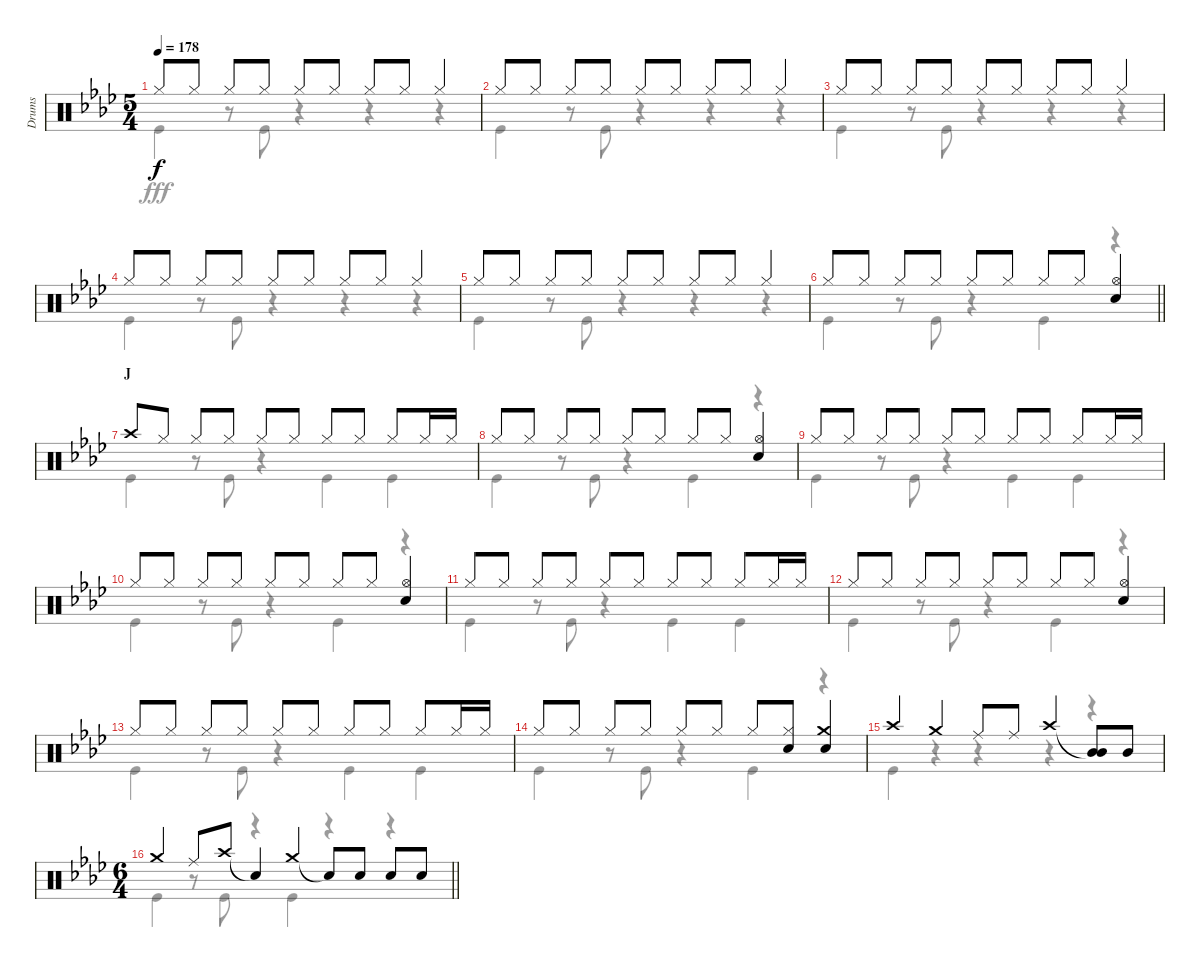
\track ("Drums" "Drums") {instrument percussion}
\staff {score}
\articulation defaults
\voice
\ts (5 4)
\tempo 178
\clef neutral
\ks ab "Hi-Hat (closed)".8{dy f} "Hi-Hat (closed)".8 "Hi-Hat (closed)".8 "Hi-Hat (closed)".8 "Hi-Hat (closed)".8 "Hi-Hat (closed)".8 "Hi-Hat (closed)".8 "Hi-Hat (closed)".8 "Hi-Hat (closed)".4
|
"Hi-Hat (closed)".8 "Hi-Hat (closed)".8 "Hi-Hat (closed)".8 "Hi-Hat (closed)".8 "Hi-Hat (closed)".8 "Hi-Hat (closed)".8 "Hi-Hat (closed)".8 "Hi-Hat (closed)".8 "Hi-Hat (closed)".4 |
"Hi-Hat (closed)".8 "Hi-Hat (closed)".8 "Hi-Hat (closed)".8 "Hi-Hat (closed)".8 "Hi-Hat (closed)".8 "Hi-Hat (closed)".8 "Hi-Hat (closed)".8 "Hi-Hat (closed)".8 "Hi-Hat (closed)".4 |
"Hi-Hat (closed)".8 "Hi-Hat (closed)".8 "Hi-Hat (closed)".8 "Hi-Hat (closed)".8 "Hi-Hat (closed)".8 "Hi-Hat (closed)".8 "Hi-Hat (closed)".8 "Hi-Hat (closed)".8 "Hi-Hat (closed)".4 |
"Hi-Hat (closed)".8 "Hi-Hat (closed)".8 "Hi-Hat (closed)".8 "Hi-Hat (closed)".8 "Hi-Hat (closed)".8 "Hi-Hat (closed)".8 "Hi-Hat (closed)".8 "Hi-Hat (closed)".8 "Hi-Hat (closed)".4 |
\barLineRight lightlight "Hi-Hat (closed)".8 "Hi-Hat (closed)".8 "Hi-Hat (closed)".8 "Hi-Hat (closed)".8 "Hi-Hat (closed)".8 "Hi-Hat (closed)".8 "Hi-Hat (closed)".8 "Hi-Hat (closed)".8
("Hi-Hat (open)" "Snare (hit) 2").4 |
\section ("" "J")
"Crash high (hit)".8 "Hi-Hat (closed)".8 "Hi-Hat (closed)".8 "Hi-Hat (closed)".8 "Hi-Hat (closed)".8 "Hi-Hat (closed)".8 "Hi-Hat (closed)".8 "Hi-Hat (closed)".8 "Hi-Hat (closed)".8 "Hi-Hat (closed)".16 "Hi-Hat (closed)".16 |
"Hi-Hat (closed)".8 "Hi-Hat (closed)".8 "Hi-Hat (closed)".8 "Hi-Hat (closed)".8 "Hi-Hat (closed)".8 "Hi-Hat (closed)".8 "Hi-Hat (closed)".8 "Hi-Hat (closed)".8 ("Hi-Hat (open)" "Snare (hit) 2").4 |
"Hi-Hat (closed)".8 "Hi-Hat (closed)".8 "Hi-Hat (closed)".8 "Hi-Hat (closed)".8 "Hi-Hat (closed)".8 "Hi-Hat (closed)".8 "Hi-Hat (closed)".8 "Hi-Hat (closed)".8 "Hi-Hat (closed)".8 "Hi-Hat (closed)".16 "Hi-Hat (closed)".16 |
"Hi-Hat (closed)".8 "Hi-Hat (closed)".8 "Hi-Hat (closed)".8 "Hi-Hat (closed)".8 "Hi-Hat (closed)".8 "Hi-Hat (closed)".8 "Hi-Hat (closed)".8 "Hi-Hat (closed)".8 ("Hi-Hat (open)" "Snare (hit) 2").4 |
"Hi-Hat (closed)".8 "Hi-Hat (closed)".8 "Hi-Hat (closed)".8 "Hi-Hat (closed)".8 "Hi-Hat (closed)".8 "Hi-Hat (closed)".8 "Hi-Hat (closed)".8 "Hi-Hat (closed)".8 "Hi-Hat (closed)".8 "Hi-Hat (closed)".16 "Hi-Hat (closed)".16 |
"Hi-Hat (closed)".8 "Hi-Hat (closed)".8 "Hi-Hat (closed)".8 "Hi-Hat (closed)".8 "Hi-Hat (closed)".8 "Hi-Hat (closed)".8 "Hi-Hat (closed)".8 "Hi-Hat (closed)".8 ("Hi-Hat (open)" "Snare (hit) 2").4 |
"Hi-Hat (closed)".8 "Hi-Hat (closed)".8 "Hi-Hat (closed)".8 "Hi-Hat (closed)".8 "Hi-Hat (closed)".8 "Hi-Hat (closed)".8 "Hi-Hat (closed)".8 "Hi-Hat (closed)".8 "Hi-Hat (closed)".8 "Hi-Hat (closed)".16 "Hi-Hat (closed)".16 |
"Hi-Hat (closed)".8 "Hi-Hat (closed)".8 "Hi-Hat (closed)".8 "Hi-Hat (closed)".8 "Hi-Hat (closed)".8 "Hi-Hat (closed)".8 "Hi-Hat (closed)".8 ("Hi-Hat (closed)" "Snare (hit) 2").8 ("Crash medium (hit)" "Snare (hit) 2").4 |
"Crash high (hit)".4 "Crash medium (hit)".4 "Ride (middle)".8 "Ride (middle)".8 "Crash high (hit)".4 ("Mid Tom (hit)"{t} "Mid Tom (hit)").8 "Mid Tom (hit)".8 |
\ts (6 4)
\barLineRight lightlight "Crash medium (hit)".4 "Ride (middle)".8 "Crash high (hit)".8 "Snare (hit)"{t}.4 "Crash medium (hit)".4 "Snare (hit)"{t}.8 "Snare (hit) 2".8 "Snare (hit) 2".8 "Snare (hit) 2".8
\voice
\clef neutral
\ottava regular
\simile none
\ks ab "Kick (hit)".4{dy fff}
r.8 "Kick (hit)".8 r.4 r.4 r.4 |
"Kick (hit)".4 r.8 "Kick (hit)".8 r.4 r.4 r.4 |
"Kick (hit)".4 r.8 "Kick (hit)".8 r.4 r.4 r.4 |
"Kick (hit)".4 r.8 "Kick (hit)".8 r.4 r.4 r.4 |
"Kick (hit)".4 r.8 "Kick (hit)".8 r.4 r.4 r.4 |
\barLineRight lightlight "Kick (hit)".4
r.8 "Kick (hit)".8 r.4 "Kick (hit)".4 r.4 |
"Kick (hit)".4 r.8 "Kick (hit)".8 r.4 "Kick (hit)".4 "Kick (hit)".4 |
"Kick (hit)".4 r.8 "Kick (hit)".8 r.4 "Kick (hit)".4 r.4 |
"Kick (hit)".4 r.8 "Kick (hit)".8 r.4 "Kick (hit)".4 "Kick (hit)".4 |
"Kick (hit)".4 r.8 "Kick (hit)".8 r.4 "Kick (hit)".4 r.4 |
"Kick (hit)".4 r.8 "Kick (hit)".8 r.4 "Kick (hit)".4 "Kick (hit)".4 |
"Kick (hit)".4 r.8 "Kick (hit)".8 r.4 "Kick (hit)".4 r.4 |
"Kick (hit)".4 r.8 "Kick (hit)".8 r.4 "Kick (hit)".4 "Kick (hit)".4 |
"Kick (hit)".4 r.8 "Kick (hit)".8 r.4 "Kick (hit)".4 r.4 |
"Kick (hit)".4 r.4 r.4 r.4 r.4 |
\barLineRight lightlight "Kick (hit)".4
r.8 "Kick (hit)".8 r.4 "Kick (hit)".4 r.4 r.4
